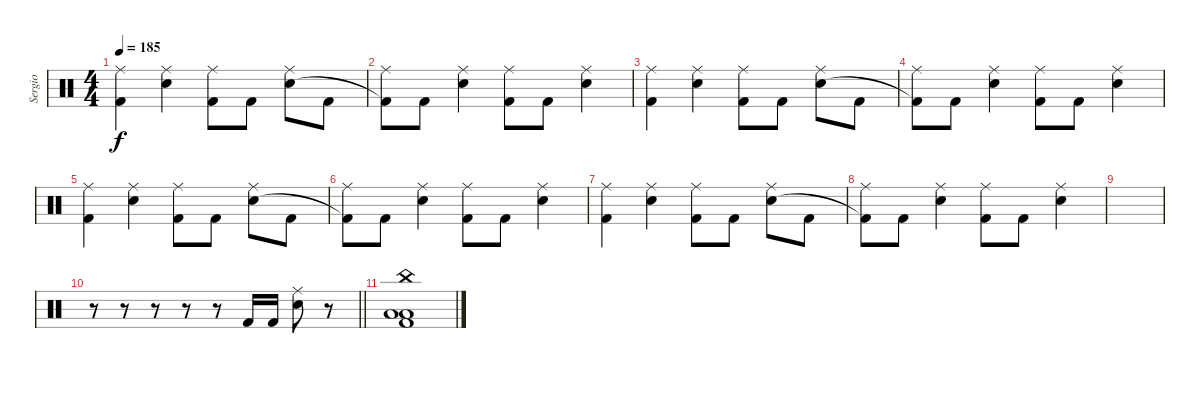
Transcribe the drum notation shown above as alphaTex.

\track ("Sergio" "Sergio") {instrument percussion}
\staff {score}
\articulation defaults
\ts (4 4)
\tempo 185
\clef neutral
\ks c
("Ride (middle)" "Kick (hit) 2").4{dy f} ("Ride (middle)" "Electric Snare (hit)").4 ("Ride (middle)" "Kick (hit) 2").8 "Kick (hit) 2".8 ("Ride (middle)" "Electric Snare (hit)").8 "Kick (hit) 2".8 |
("Ride (middle)" "Kick (hit) 2"{t}).8 "Kick (hit) 2".8 ("Ride (middle)" "Electric Snare (hit)").4 ("Ride (middle)" "Kick (hit) 2").8 "Kick (hit) 2".8 ("Ride (middle)" "Electric Snare (hit)").4 |
("Ride (middle)" "Kick (hit) 2").4 ("Ride (middle)" "Electric Snare (hit)").4 ("Ride (middle)" "Kick (hit) 2").8 "Kick (hit) 2".8 ("Ride (middle)" "Electric Snare (hit)").8 "Kick (hit) 2".8 |
("Ride (middle)" "Kick (hit) 2"{t}).8 "Kick (hit) 2".8 ("Ride (middle)" "Electric Snare (hit)").4 ("Ride (middle)" "Kick (hit) 2").8 "Kick (hit) 2".8 ("Ride (middle)" "Electric Snare (hit)").4 |
("Ride (middle)" "Kick (hit) 2").4 ("Ride (middle)" "Electric Snare (hit)").4 ("Ride (middle)" "Kick (hit) 2").8 "Kick (hit) 2".8 ("Ride (middle)" "Electric Snare (hit)").8 "Kick (hit) 2".8 |
("Ride (middle)" "Kick (hit) 2"{t}).8 "Kick (hit) 2".8 ("Ride (middle)" "Electric Snare (hit)").4 ("Ride (middle)" "Kick (hit) 2").8 "Kick (hit) 2".8 ("Ride (middle)" "Electric Snare (hit)").4 |
("Ride (middle)" "Kick (hit) 2").4 ("Ride (middle)" "Electric Snare (hit)").4 ("Ride (middle)" "Kick (hit) 2").8 "Kick (hit) 2".8 ("Ride (middle)" "Electric Snare (hit)").8 "Kick (hit) 2".8 |
("Ride (middle)" "Kick (hit) 2"{t}).8 "Kick (hit) 2".8 ("Ride (middle)" "Electric Snare (hit)").4 ("Ride (middle)" "Kick (hit) 2").8 "Kick (hit) 2".8 ("Ride (middle)" "Electric Snare (hit)").4 |
|
\barLineRight lightlight
r.8 r.8 r.8 r.8 r.8 "Kick (hit) 2".16 "Kick (hit) 2".16 ("Ride (middle)" "Electric Snare (hit)").8 r.8 |
("Low Tom (hit)" "Low Floor Tom (hit)" "Kick (hit) 2" "China (hit)").1
